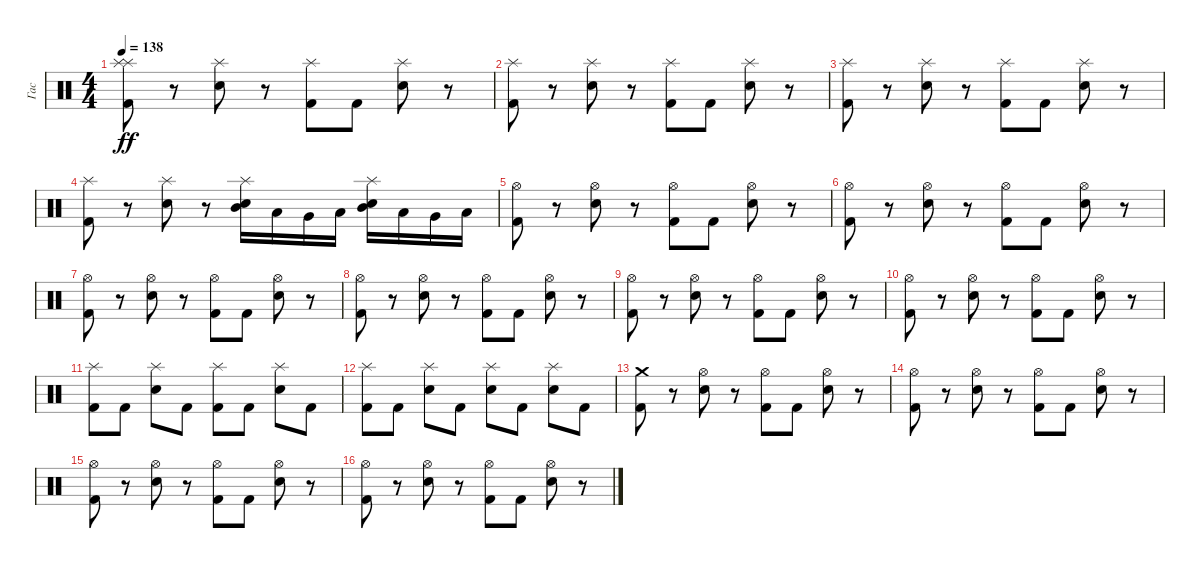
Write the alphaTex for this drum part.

\track ("Гас" "Гас") {instrument percussion}
\staff {score}
\articulation defaults
\ts (4 4)
\tempo 138
\clef neutral
\ks c
("Splash (hit)" "Splash (hit)" "Kick (hit) 2").8{dy ff} r.8 ("Splash (hit)" "Electric Snare (hit)").8 r.8 ("Splash (hit)" "Kick (hit) 2").8 "Kick (hit) 2".8 ("Splash (hit)" "Electric Snare (hit)").8 r.8 |
("Splash (hit)" "Kick (hit) 2").8 r.8 ("Splash (hit)" "Electric Snare (hit)").8 r.8 ("Splash (hit)" "Kick (hit) 2").8 "Kick (hit) 2".8 ("Splash (hit)" "Electric Snare (hit)").8 r.8 |
("Splash (hit)" "Kick (hit) 2").8 r.8 ("Splash (hit)" "Electric Snare (hit)").8 r.8 ("Splash (hit)" "Kick (hit) 2").8 "Kick (hit) 2".8 ("Splash (hit)" "Electric Snare (hit)").8 r.8 |
("Splash (hit)" "Kick (hit) 2").8 r.8 ("Splash (hit)" "Electric Snare (hit)").8 r.8 ("Splash (hit)" "Mid Tom (hit)" "Electric Snare (hit)").16 "Low Tom (hit)".16 "Very Low Tom (hit)".16 "Low Floor Tom (hit)".16 ("Splash (hit)" "Mid Tom (hit)" "Electric Snare (hit)").16 "Low Tom (hit)".16 "Very Low Tom (hit)".16 "Low Floor Tom (hit)".16 |
("Hi-Hat (open)" "Kick (hit) 2").8 r.8 ("Hi-Hat (open)" "Electric Snare (hit)").8 r.8 ("Hi-Hat (open)" "Kick (hit) 2").8 "Kick (hit) 2".8 ("Hi-Hat (open)" "Electric Snare (hit)").8 r.8 |
("Hi-Hat (open)" "Kick (hit) 2").8 r.8 ("Hi-Hat (open)" "Electric Snare (hit)").8 r.8 ("Hi-Hat (open)" "Kick (hit) 2").8 "Kick (hit) 2".8 ("Hi-Hat (open)" "Electric Snare (hit)").8 r.8 |
("Hi-Hat (open)" "Kick (hit) 2").8 r.8 ("Hi-Hat (open)" "Electric Snare (hit)").8 r.8 ("Hi-Hat (open)" "Kick (hit) 2").8 "Kick (hit) 2".8 ("Hi-Hat (open)" "Electric Snare (hit)").8 r.8 |
("Hi-Hat (open)" "Kick (hit) 2").8 r.8 ("Hi-Hat (open)" "Electric Snare (hit)").8 r.8 ("Hi-Hat (open)" "Kick (hit) 2").8 "Kick (hit) 2".8 ("Hi-Hat (open)" "Electric Snare (hit)").8 r.8 |
("Hi-Hat (open)" "Kick (hit) 2").8 r.8 ("Hi-Hat (open)" "Electric Snare (hit)").8 r.8 ("Hi-Hat (open)" "Kick (hit) 2").8 "Kick (hit) 2".8 ("Hi-Hat (open)" "Electric Snare (hit)").8 r.8 |
("Hi-Hat (open)" "Kick (hit) 2").8 r.8 ("Hi-Hat (open)" "Electric Snare (hit)").8 r.8 ("Hi-Hat (open)" "Kick (hit) 2").8 "Kick (hit) 2".8 ("Hi-Hat (open)" "Electric Snare (hit)").8 r.8 |
("Splash (hit)" "Kick (hit) 2").8 "Kick (hit) 2".8 ("Splash (hit)" "Electric Snare (hit)").8 "Kick (hit) 2".8 ("Splash (hit)" "Kick (hit) 2").8 "Kick (hit) 2".8 ("Splash (hit)" "Electric Snare (hit)").8 "Kick (hit) 2".8 |
("Splash (hit)" "Kick (hit) 2").8 "Kick (hit) 2".8 ("Splash (hit)" "Electric Snare (hit)").8 "Kick (hit) 2".8 ("Splash (hit)" "Electric Snare (hit)").8 "Kick (hit) 2".8 ("Splash (hit)" "Electric Snare (hit)").8 "Kick (hit) 2".8 |
("Crash medium (hit)" "Kick (hit) 2").8 r.8 ("Hi-Hat (open)" "Electric Snare (hit)").8 r.8 ("Hi-Hat (open)" "Kick (hit) 2").8 "Kick (hit) 2".8 ("Hi-Hat (open)" "Electric Snare (hit)").8 r.8 |
("Hi-Hat (open)" "Kick (hit) 2").8 r.8 ("Hi-Hat (open)" "Electric Snare (hit)").8 r.8 ("Hi-Hat (open)" "Kick (hit) 2").8 "Kick (hit) 2".8 ("Hi-Hat (open)" "Electric Snare (hit)").8 r.8 |
("Hi-Hat (open)" "Kick (hit) 2").8 r.8 ("Hi-Hat (open)" "Electric Snare (hit)").8 r.8 ("Hi-Hat (open)" "Kick (hit) 2").8 "Kick (hit) 2".8 ("Hi-Hat (open)" "Electric Snare (hit)").8 r.8 |
("Hi-Hat (open)" "Kick (hit) 2").8 r.8 ("Hi-Hat (open)" "Electric Snare (hit)").8 r.8 ("Hi-Hat (open)" "Kick (hit) 2").8 "Kick (hit) 2".8 ("Hi-Hat (open)" "Electric Snare (hit)").8 r.8
